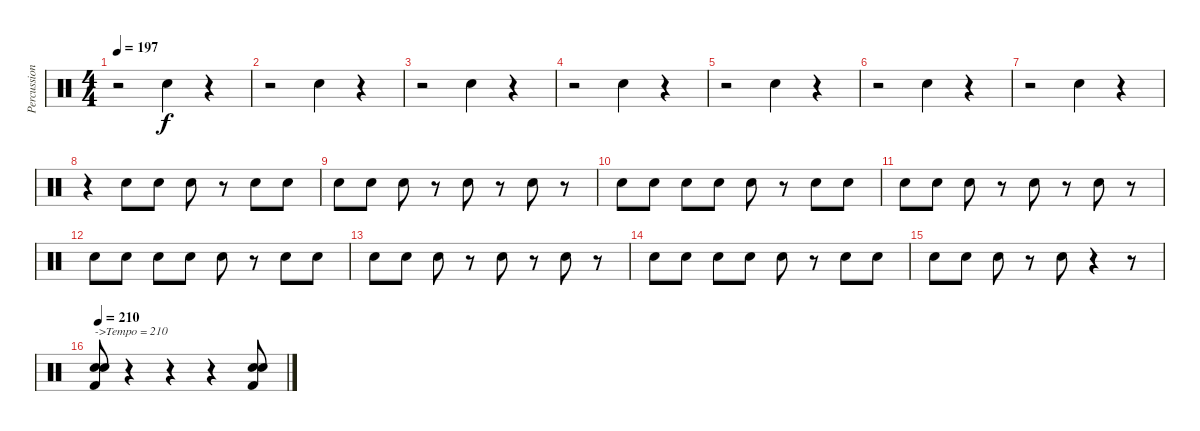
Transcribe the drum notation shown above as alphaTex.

\track ("Percussion" "Percussion") {instrument percussion}
\staff {score}
\articulation defaults
\ts (4 4)
\tempo 197
\clef neutral
\ks c
r.2{dy f} "Electric Snare (hit)".4 r.4 |
r.2 "Electric Snare (hit)".4 r.4 |
r.2 "Electric Snare (hit)".4 r.4 |
r.2 "Electric Snare (hit)".4 r.4 |
r.2 "Electric Snare (hit)".4 r.4 |
r.2 "Electric Snare (hit)".4 r.4 |
r.2 "Electric Snare (hit)".4 r.4 |
r.4 "Electric Snare (hit)".8 "Electric Snare (hit)".8 "Electric Snare (hit)".8 r.8 "Electric Snare (hit)".8 "Electric Snare (hit)".8 |
"Electric Snare (hit)".8 "Electric Snare (hit)".8 "Electric Snare (hit)".8 r.8 "Electric Snare (hit)".8 r.8 "Electric Snare (hit)".8 r.8 |
"Electric Snare (hit)".8 "Electric Snare (hit)".8 "Electric Snare (hit)".8 "Electric Snare (hit)".8 "Electric Snare (hit)".8 r.8 "Electric Snare (hit)".8 "Electric Snare (hit)".8 |
"Electric Snare (hit)".8 "Electric Snare (hit)".8 "Electric Snare (hit)".8 r.8 "Electric Snare (hit)".8 r.8 "Electric Snare (hit)".8 r.8 |
"Electric Snare (hit)".8 "Electric Snare (hit)".8 "Electric Snare (hit)".8 "Electric Snare (hit)".8 "Electric Snare (hit)".8 r.8 "Electric Snare (hit)".8 "Electric Snare (hit)".8 |
"Electric Snare (hit)".8 "Electric Snare (hit)".8 "Electric Snare (hit)".8 r.8 "Electric Snare (hit)".8 r.8 "Electric Snare (hit)".8 r.8 |
"Electric Snare (hit)".8 "Electric Snare (hit)".8 "Electric Snare (hit)".8 "Electric Snare (hit)".8 "Electric Snare (hit)".8 r.8 "Electric Snare (hit)".8 "Electric Snare (hit)".8 |
"Electric Snare (hit)".8 "Electric Snare (hit)".8 "Electric Snare (hit)".8 r.8 "Electric Snare (hit)".8 r.4 r.8 |
\tempo 210
("Electric Snare (hit)" "Electric Snare (hit)" "Kick (hit) 2").8{txt "->Tempo = 210"} r.4 r.4 r.4 ("Electric Snare (hit)" "Electric Snare (hit)" "Kick (hit) 2").8
